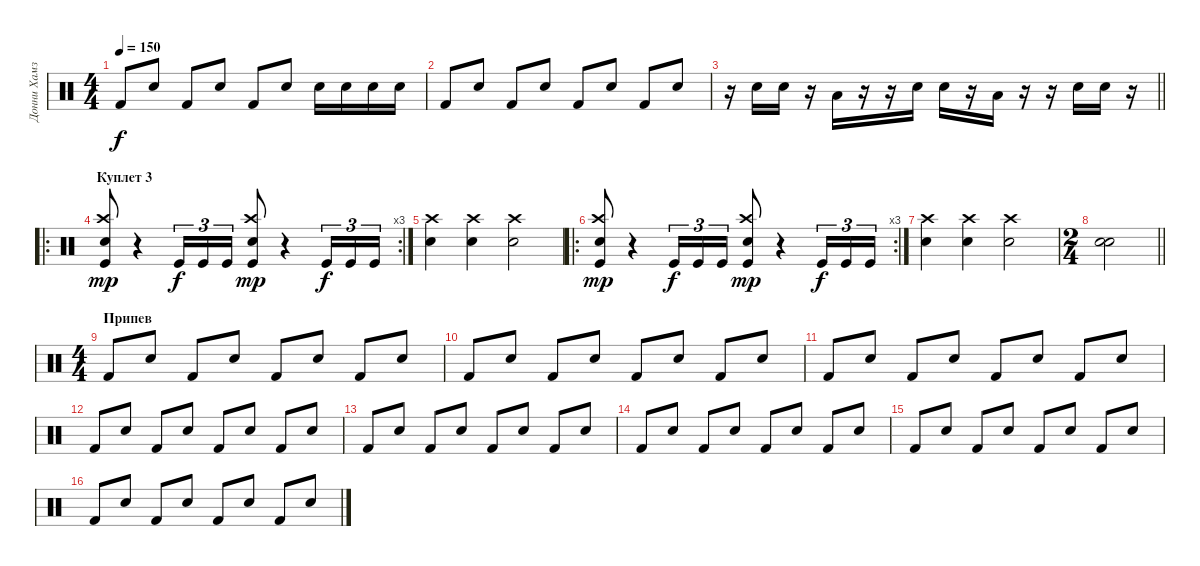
\track ("Донни Хамзик" "Донни Хамз") {instrument percussion}
\staff {score}
\articulation defaults
\ts (4 4)
\tempo 150
\clef neutral
\ks c "Kick (hit) 2".8{dy f} "Snare (hit) 2".8 "Kick (hit) 2".8 "Snare (hit) 2".8 "Kick (hit) 2".8 "Snare (hit) 2".8 "Snare (hit) 2".16 "Snare (hit) 2".16 "Snare (hit) 2".16 "Snare (hit) 2".16
|
"Kick (hit) 2".8 "Snare (hit) 2".8 "Kick (hit) 2".8 "Snare (hit) 2".8 "Kick (hit) 2".8 "Snare (hit) 2".8 "Kick (hit) 2".8 "Snare (hit) 2".8 |
\barLineRight lightlight
r.16 "Snare (hit) 2".16 "Snare (hit) 2".16 r.16 "Low Tom (hit)".16 r.16 r.16 "Snare (hit) 2".16 "Snare (hit) 2".16 r.16 "Low Tom (hit)".16 r.16 r.16 "Snare (hit) 2".16 "Snare (hit) 2".16 r.16 |
\ro
\rc 3
\section ("" "Куплет 3")
("Crash high (hit)" "Snare (hit) 2" "Kick (hit)").8{dy mp} r.4 "Kick (hit)".16{tu (3 2) dy f} "Kick (hit)".16{tu (3 2)} "Kick (hit)".16{tu (3 2)} ("Crash high (hit)" "Snare (hit) 2" "Kick (hit)").8{dy mp} r.4 "Kick (hit)".16{tu (3 2) dy f} "Kick (hit)".16{tu (3 2)} "Kick (hit)".16{tu (3 2)} |
("Crash high (hit)" "Snare (hit) 2").4 ("Crash high (hit)" "Snare (hit) 2").4 ("Crash high (hit)" "Snare (hit) 2").2 |
\ro
\rc 3
("Crash high (hit)" "Snare (hit) 2" "Kick (hit)").8{dy mp} r.4 "Kick (hit)".16{tu (3 2) dy f} "Kick (hit)".16{tu (3 2)} "Kick (hit)".16{tu (3 2)} ("Crash high (hit)" "Snare (hit) 2" "Kick (hit)").8{dy mp} r.4 "Kick (hit)".16{tu (3 2) dy f} "Kick (hit)".16{tu (3 2)} "Kick (hit)".16{tu (3 2)} |
("Crash high (hit)" "Snare (hit) 2").4 ("Crash high (hit)" "Snare (hit) 2").4 ("Crash high (hit)" "Snare (hit) 2").2 |
\ts (2 4)
\barLineRight lightlight
("Electric Snare (hit)" "Electric Snare (hit)").2 |
\ts (4 4)
\section ("" "Припев")
"Kick (hit) 2".8 "Snare (hit) 2".8 "Kick (hit) 2".8 "Snare (hit) 2".8 "Kick (hit) 2".8 "Snare (hit) 2".8 "Kick (hit) 2".8 "Snare (hit) 2".8 |
"Kick (hit) 2".8 "Snare (hit) 2".8 "Kick (hit) 2".8 "Snare (hit) 2".8 "Kick (hit) 2".8 "Snare (hit) 2".8 "Kick (hit) 2".8 "Snare (hit) 2".8 |
"Kick (hit) 2".8 "Snare (hit) 2".8 "Kick (hit) 2".8 "Snare (hit) 2".8 "Kick (hit) 2".8 "Snare (hit) 2".8 "Kick (hit) 2".8 "Snare (hit) 2".8 |
"Kick (hit) 2".8 "Snare (hit) 2".8 "Kick (hit) 2".8 "Snare (hit) 2".8 "Kick (hit) 2".8 "Snare (hit) 2".8 "Kick (hit) 2".8 "Snare (hit) 2".8 |
"Kick (hit) 2".8 "Snare (hit) 2".8 "Kick (hit) 2".8 "Snare (hit) 2".8 "Kick (hit) 2".8 "Snare (hit) 2".8 "Kick (hit) 2".8 "Snare (hit) 2".8 |
"Kick (hit) 2".8 "Snare (hit) 2".8 "Kick (hit) 2".8 "Snare (hit) 2".8 "Kick (hit) 2".8 "Snare (hit) 2".8 "Kick (hit) 2".8 "Snare (hit) 2".8 |
"Kick (hit) 2".8 "Snare (hit) 2".8 "Kick (hit) 2".8 "Snare (hit) 2".8 "Kick (hit) 2".8 "Snare (hit) 2".8 "Kick (hit) 2".8 "Snare (hit) 2".8 |
"Kick (hit) 2".8 "Snare (hit) 2".8 "Kick (hit) 2".8 "Snare (hit) 2".8 "Kick (hit) 2".8 "Snare (hit) 2".8 "Kick (hit) 2".8 "Snare (hit) 2".8
